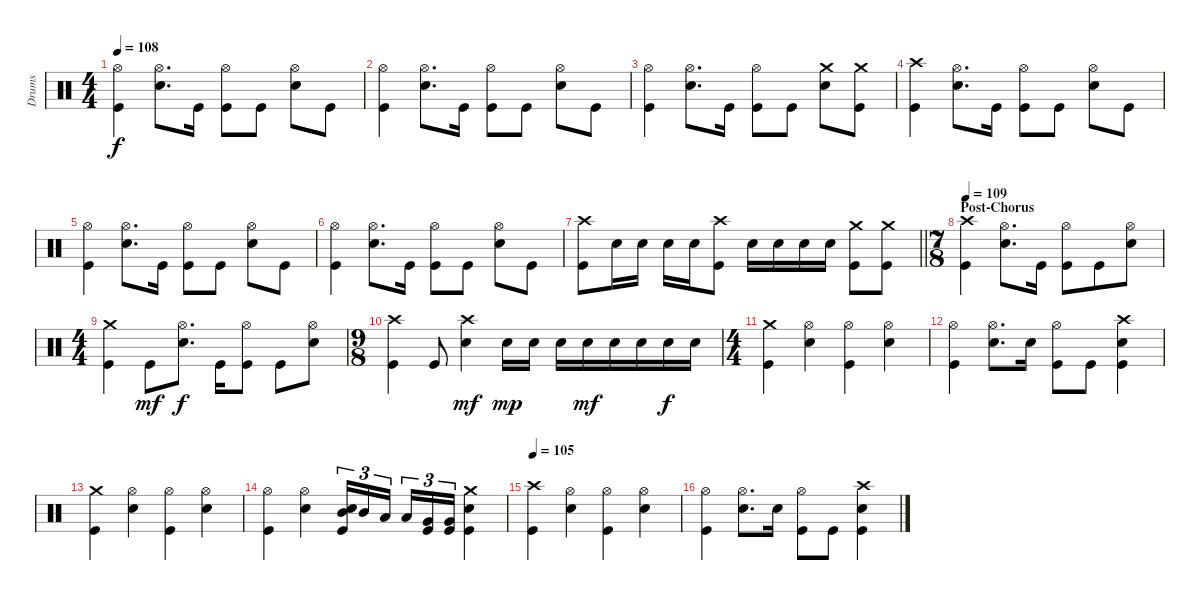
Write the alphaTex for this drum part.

\track ("Drums" "Drums") {instrument percussion}
\staff {score}
\articulation defaults
\ts (4 4)
\tempo 108
\clef neutral
\ks c
("Hi-Hat (open)" "Kick (hit)").4{dy f} ("Hi-Hat (open)" "Electric Snare (hit)").8{d} "Kick (hit)".16 ("Hi-Hat (open)" "Kick (hit)").8 "Kick (hit)".8 ("Hi-Hat (open)" "Electric Snare (hit)").8 "Kick (hit)".8 |
("Hi-Hat (open)" "Kick (hit)").4 ("Hi-Hat (open)" "Electric Snare (hit)").8{d} "Kick (hit)".16 ("Hi-Hat (open)" "Kick (hit)").8 "Kick (hit)".8 ("Hi-Hat (open)" "Electric Snare (hit)").8 "Kick (hit)".8 |
("Hi-Hat (open)" "Kick (hit)").4 ("Hi-Hat (open)" "Electric Snare (hit)").8{d} "Kick (hit)".16 ("Hi-Hat (open)" "Kick (hit)").8 "Kick (hit)".8 ("Crash medium (hit)" "Electric Snare (hit)").8 ("Crash medium (hit)" "Kick (hit)").8 |
("Crash high (hit)" "Kick (hit)").4 ("Hi-Hat (open)" "Electric Snare (hit)").8{d} "Kick (hit)".16 ("Hi-Hat (open)" "Kick (hit)").8 "Kick (hit)".8 ("Hi-Hat (open)" "Electric Snare (hit)").8 "Kick (hit)".8 |
("Hi-Hat (open)" "Kick (hit)").4 ("Hi-Hat (open)" "Electric Snare (hit)").8{d} "Kick (hit)".16 ("Hi-Hat (open)" "Kick (hit)").8 "Kick (hit)".8 ("Hi-Hat (open)" "Electric Snare (hit)").8 "Kick (hit)".8 |
("Hi-Hat (open)" "Kick (hit)").4 ("Hi-Hat (open)" "Electric Snare (hit)").8{d} "Kick (hit)".16 ("Hi-Hat (open)" "Kick (hit)").8 "Kick (hit)".8 ("Hi-Hat (open)" "Electric Snare (hit)").8 "Kick (hit)".8 |
\barLineRight lightlight
("Crash high (hit)" "Kick (hit)").8 "Electric Snare (hit)".16 "Electric Snare (hit)".16 "Electric Snare (hit)".16 "Electric Snare (hit)".16 ("Crash high (hit)" "Kick (hit)").8 "Electric Snare (hit)".16 "Electric Snare (hit)".16 "Electric Snare (hit)".16 "Electric Snare (hit)".16 ("Crash medium (hit)" "Kick (hit)").8 ("Crash medium (hit)" "Kick (hit)").8 |
\ts (7 8)
\section ("" "Post-Chorus")
\tempo 109
("Crash high (hit)" "Kick (hit)").4 ("Hi-Hat (open)" "Electric Snare (hit)").8{d} "Kick (hit)".16 ("Hi-Hat (open)" "Kick (hit)").8 "Kick (hit)".8 ("Hi-Hat (open)" "Electric Snare (hit)").8 |
\ts (4 4)
("Crash medium (hit)" "Kick (hit)").4 "Kick (hit)".8{dy mf} ("Hi-Hat (open)" "Electric Snare (hit)").8{d dy f} "Kick (hit)".16 ("Hi-Hat (open)" "Kick (hit)").8 "Kick (hit)".8 ("Hi-Hat (open)" "Electric Snare (hit)").8 |
\ts (9 8)
("Crash high (hit)" "Kick (hit)").4 "Kick (hit)".8 ("Crash high (hit)" "Electric Snare (hit)").4{dy mf} "Electric Snare (hit)".16{dy mp} "Electric Snare (hit)".16 "Electric Snare (hit)".16 "Electric Snare (hit)".16{dy mf} "Electric Snare (hit)".16 "Electric Snare (hit)".16 "Electric Snare (hit)".16{dy f} "Electric Snare (hit)".16 |
\ts (4 4)
("Crash medium (hit)" "Kick (hit)").4 ("Hi-Hat (open)" "Electric Snare (hit)").4 ("Hi-Hat (open)" "Kick (hit)").4 ("Hi-Hat (open)" "Electric Snare (hit)").4 |
("Hi-Hat (open)" "Kick (hit)").4 ("Hi-Hat (open)" "Electric Snare (hit)").8{d} "Electric Snare (hit)".16 ("Hi-Hat (open)" "Kick (hit)").8 "Kick (hit)".8 ("Crash high (hit)" "Electric Snare (hit)" "Kick (hit)").4 |
("Crash medium (hit)" "Kick (hit)").4 ("Hi-Hat (open)" "Electric Snare (hit)").4 ("Hi-Hat (open)" "Kick (hit)").4 ("Hi-Hat (open)" "Electric Snare (hit)").4 |
("Hi-Hat (open)" "Kick (hit)").4 ("Hi-Hat (open)" "Electric Snare (hit)").4 ("Electric Snare (hit)" "Mid Tom (hit)" "Kick (hit)").16{tu (3 2)} "Mid Tom (hit)".16{tu (3 2)} "Low Tom (hit)".16{tu (3 2) beam splitsecondary} "Low Tom (hit)".16{tu (3 2)} ("Very Low Tom (hit)" "Kick (hit)").16{tu (3 2)} ("Very Low Tom (hit)" "Kick (hit)").16{tu (3 2)} ("Crash medium (hit)" "Electric Snare (hit)" "Kick (hit)").4 |
\tempo 105
("Crash high (hit)" "Kick (hit)").4 ("Hi-Hat (open)" "Electric Snare (hit)").4 ("Hi-Hat (open)" "Kick (hit)").4 ("Hi-Hat (open)" "Electric Snare (hit)").4 |
("Hi-Hat (open)" "Kick (hit)").4 ("Hi-Hat (open)" "Electric Snare (hit)").8{d} "Electric Snare (hit)".16 ("Hi-Hat (open)" "Kick (hit)").8 "Kick (hit)".8 ("Crash high (hit)" "Electric Snare (hit)" "Kick (hit)").4
